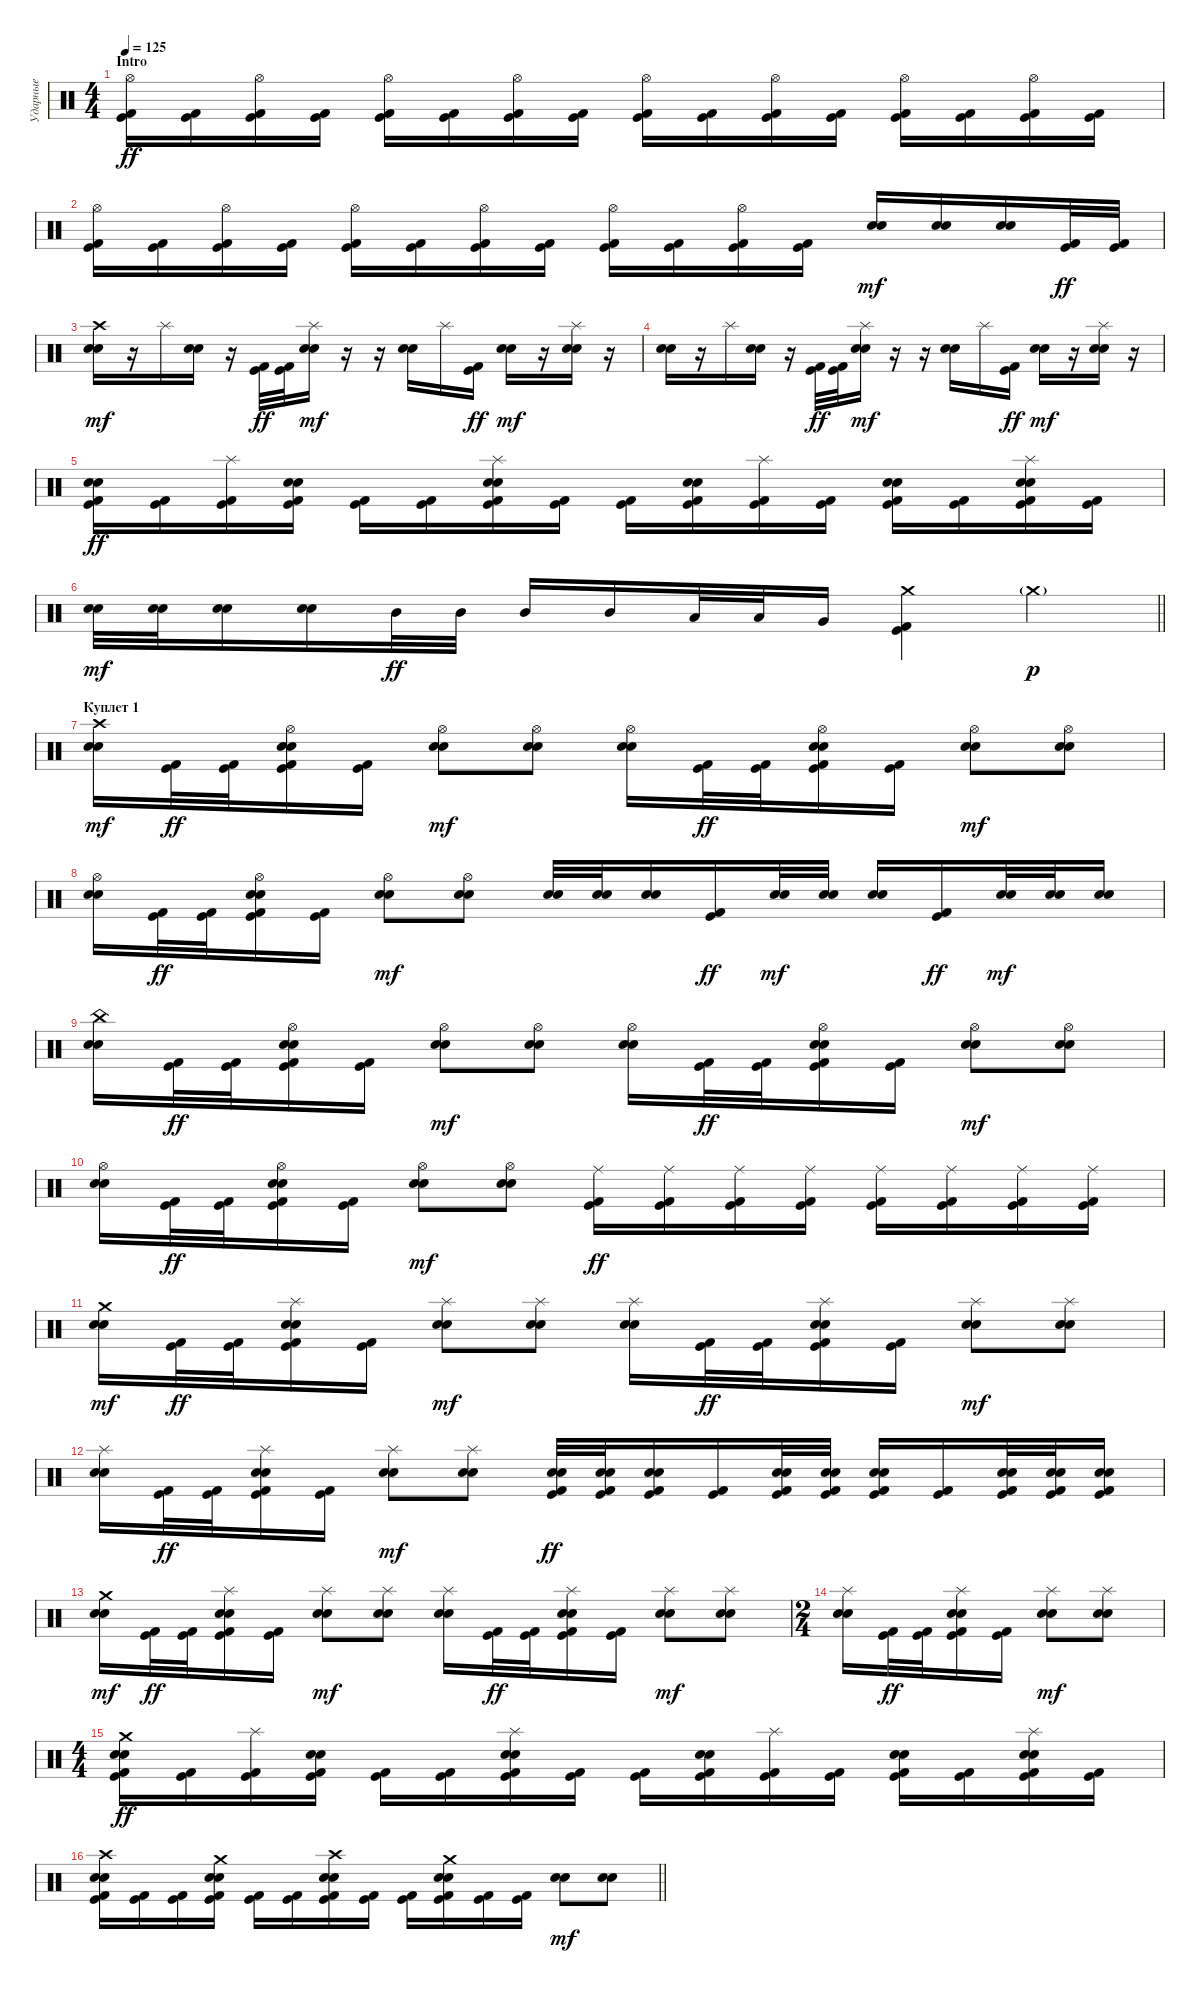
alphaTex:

\track ("Ударные" "Ударные") {instrument percussion}
\staff {score}
\articulation defaults
\ts (4 4)
\section ("" "Intro")
\tempo 125
\clef neutral
\ks c
("Hi-Hat (open)" "Kick (hit) 2" "Kick (hit)").16{dy ff} ("Kick (hit) 2" "Kick (hit)").16 ("Hi-Hat (open)" "Kick (hit) 2" "Kick (hit)").16 ("Kick (hit) 2" "Kick (hit)").16 ("Hi-Hat (open)" "Kick (hit) 2" "Kick (hit)").16 ("Kick (hit) 2" "Kick (hit)").16 ("Hi-Hat (open)" "Kick (hit) 2" "Kick (hit)").16 ("Kick (hit) 2" "Kick (hit)").16 ("Hi-Hat (open)" "Kick (hit) 2" "Kick (hit)").16 ("Kick (hit) 2" "Kick (hit)").16 ("Hi-Hat (open)" "Kick (hit) 2" "Kick (hit)").16 ("Kick (hit) 2" "Kick (hit)").16 ("Hi-Hat (open)" "Kick (hit) 2" "Kick (hit)").16 ("Kick (hit) 2" "Kick (hit)").16 ("Hi-Hat (open)" "Kick (hit) 2" "Kick (hit)").16 ("Kick (hit) 2" "Kick (hit)").16 |
("Hi-Hat (open)" "Kick (hit) 2" "Kick (hit)").16 ("Kick (hit) 2" "Kick (hit)").16 ("Hi-Hat (open)" "Kick (hit) 2" "Kick (hit)").16 ("Kick (hit) 2" "Kick (hit)").16 ("Hi-Hat (open)" "Kick (hit) 2" "Kick (hit)").16 ("Kick (hit) 2" "Kick (hit)").16 ("Hi-Hat (open)" "Kick (hit) 2" "Kick (hit)").16 ("Kick (hit) 2" "Kick (hit)").16 ("Hi-Hat (open)" "Kick (hit) 2" "Kick (hit)").16 ("Kick (hit) 2" "Kick (hit)").16 ("Hi-Hat (open)" "Kick (hit) 2" "Kick (hit)").16 ("Kick (hit) 2" "Kick (hit)").16 ("Snare (hit) 2" "Electric Snare (hit)").16{dy mf} ("Snare (hit) 2" "Electric Snare (hit)").16 ("Snare (hit) 2" "Electric Snare (hit)").16 ("Kick (hit) 2" "Kick (hit)").32{dy ff} ("Kick (hit) 2" "Kick (hit)").32 |
("Crash high (hit)" "Snare (hit) 2" "Electric Snare (hit)").16{dy mf} r.16 "Splash (hit)".16 ("Snare (hit) 2" "Electric Snare (hit)").16 r.16 ("Kick (hit) 2" "Kick (hit)").32{dy ff} ("Kick (hit) 2" "Kick (hit)").32 ("Splash (hit)" "Snare (hit) 2" "Electric Snare (hit)").16{dy mf} r.16 r.16 ("Snare (hit) 2" "Electric Snare (hit)").16 "Splash (hit)".16 ("Kick (hit) 2" "Kick (hit)").16{dy ff} ("Snare (hit) 2" "Electric Snare (hit)").16{dy mf} r.16 ("Splash (hit)" "Snare (hit) 2" "Electric Snare (hit)").16 r.16 |
("Snare (hit) 2" "Electric Snare (hit)").16 r.16 "Splash (hit)".16 ("Snare (hit) 2" "Electric Snare (hit)").16 r.16 ("Kick (hit) 2" "Kick (hit)").32{dy ff} ("Kick (hit) 2" "Kick (hit)").32 ("Splash (hit)" "Snare (hit) 2" "Electric Snare (hit)").16{dy mf} r.16 r.16 ("Snare (hit) 2" "Electric Snare (hit)").16 "Splash (hit)".16 ("Kick (hit) 2" "Kick (hit)").16{dy ff} ("Snare (hit) 2" "Electric Snare (hit)").16{dy mf} r.16 ("Splash (hit)" "Snare (hit) 2" "Electric Snare (hit)").16 r.16 |
("Snare (hit) 2" "Electric Snare (hit)" "Kick (hit) 2" "Kick (hit)").16{dy ff} ("Kick (hit) 2" "Kick (hit)").16 ("Splash (hit)" "Kick (hit) 2" "Kick (hit)").16 ("Snare (hit) 2" "Electric Snare (hit)" "Kick (hit) 2" "Kick (hit)").16 ("Kick (hit) 2" "Kick (hit)").16 ("Kick (hit) 2" "Kick (hit)").16 ("Splash (hit)" "Snare (hit) 2" "Electric Snare (hit)" "Kick (hit) 2" "Kick (hit)").16 ("Kick (hit) 2" "Kick (hit)").16 ("Kick (hit) 2" "Kick (hit)").16 ("Snare (hit) 2" "Electric Snare (hit)" "Kick (hit) 2" "Kick (hit)").16 ("Splash (hit)" "Kick (hit) 2" "Kick (hit)").16 ("Kick (hit) 2" "Kick (hit)").16 ("Snare (hit) 2" "Electric Snare (hit)" "Kick (hit) 2" "Kick (hit)").16 ("Kick (hit) 2" "Kick (hit)").16 ("Splash (hit)" "Snare (hit) 2" "Electric Snare (hit)" "Kick (hit) 2" "Kick (hit)").16 ("Kick (hit) 2" "Kick (hit)").16 |
\barLineRight lightlight
("Snare (hit) 2" "Electric Snare (hit)").32{dy mf} ("Snare (hit) 2" "Electric Snare (hit)").32 ("Snare (hit) 2" "Electric Snare (hit)").16 ("Snare (hit) 2" "Electric Snare (hit)").16 "Mid Tom (hit)".32{dy ff} "Mid Tom (hit)".32 "Mid Tom (hit)".16 "Mid Tom (hit)".16 "Low Tom (hit)".32 "Low Tom (hit)".32 "Very Low Tom (hit)".16 ("Crash medium (hit)" "Kick (hit) 2" "Kick (hit)").4{volume 0} "Crash medium (hit)"{g}.4{dy p} |
\section ("" "Куплет 1")
("Crash high (hit)" "Snare (hit) 2" "Electric Snare (hit)").16{dy mf volume 16} ("Kick (hit) 2" "Kick (hit)").32{dy ff} ("Kick (hit) 2" "Kick (hit)").32 ("Hi-Hat (open)" "Snare (hit) 2" "Electric Snare (hit)" "Kick (hit) 2" "Kick (hit)").16 ("Kick (hit) 2" "Kick (hit)").16 ("Hi-Hat (open)" "Snare (hit) 2" "Electric Snare (hit)").8{dy mf} ("Hi-Hat (open)" "Snare (hit) 2" "Electric Snare (hit)").8 ("Hi-Hat (open)" "Snare (hit) 2" "Electric Snare (hit)").16 ("Kick (hit) 2" "Kick (hit)").32{dy ff} ("Kick (hit) 2" "Kick (hit)").32 ("Hi-Hat (open)" "Snare (hit) 2" "Electric Snare (hit)" "Kick (hit) 2" "Kick (hit)").16 ("Kick (hit) 2" "Kick (hit)").16 ("Hi-Hat (open)" "Snare (hit) 2" "Electric Snare (hit)").8{dy mf} ("Hi-Hat (open)" "Snare (hit) 2" "Electric Snare (hit)").8 |
("Hi-Hat (open)" "Snare (hit) 2" "Electric Snare (hit)").16 ("Kick (hit) 2" "Kick (hit)").32{dy ff} ("Kick (hit) 2" "Kick (hit)").32 ("Hi-Hat (open)" "Snare (hit) 2" "Electric Snare (hit)" "Kick (hit) 2" "Kick (hit)").16 ("Kick (hit) 2" "Kick (hit)").16 ("Hi-Hat (open)" "Snare (hit) 2" "Electric Snare (hit)").8{dy mf} ("Hi-Hat (open)" "Snare (hit) 2" "Electric Snare (hit)").8 ("Snare (hit) 2" "Electric Snare (hit)").32 ("Snare (hit) 2" "Electric Snare (hit)").32 ("Snare (hit) 2" "Electric Snare (hit)").16 ("Kick (hit) 2" "Kick (hit)").16{dy ff} ("Snare (hit) 2" "Electric Snare (hit)").32{dy mf} ("Snare (hit) 2" "Electric Snare (hit)").32 ("Snare (hit) 2" "Electric Snare (hit)").16 ("Kick (hit) 2" "Kick (hit)").16{dy ff} ("Snare (hit) 2" "Electric Snare (hit)").32{dy mf} ("Snare (hit) 2" "Electric Snare (hit)").32 ("Snare (hit) 2" "Electric Snare (hit)").16 |
("China (hit)" "Snare (hit) 2" "Electric Snare (hit)").16 ("Kick (hit) 2" "Kick (hit)").32{dy ff} ("Kick (hit) 2" "Kick (hit)").32 ("Hi-Hat (open)" "Snare (hit) 2" "Electric Snare (hit)" "Kick (hit) 2" "Kick (hit)").16 ("Kick (hit) 2" "Kick (hit)").16 ("Hi-Hat (open)" "Snare (hit) 2" "Electric Snare (hit)").8{dy mf} ("Hi-Hat (open)" "Snare (hit) 2" "Electric Snare (hit)").8 ("Hi-Hat (open)" "Snare (hit) 2" "Electric Snare (hit)").16 ("Kick (hit) 2" "Kick (hit)").32{dy ff} ("Kick (hit) 2" "Kick (hit)").32 ("Hi-Hat (open)" "Snare (hit) 2" "Electric Snare (hit)" "Kick (hit) 2" "Kick (hit)").16 ("Kick (hit) 2" "Kick (hit)").16 ("Hi-Hat (open)" "Snare (hit) 2" "Electric Snare (hit)").8{dy mf} ("Hi-Hat (open)" "Snare (hit) 2" "Electric Snare (hit)").8 |
("Hi-Hat (open)" "Snare (hit) 2" "Electric Snare (hit)").16 ("Kick (hit) 2" "Kick (hit)").32{dy ff} ("Kick (hit) 2" "Kick (hit)").32 ("Hi-Hat (open)" "Snare (hit) 2" "Electric Snare (hit)" "Kick (hit) 2" "Kick (hit)").16 ("Kick (hit) 2" "Kick (hit)").16 ("Hi-Hat (open)" "Snare (hit) 2" "Electric Snare (hit)").8{dy mf} ("Hi-Hat (open)" "Snare (hit) 2" "Electric Snare (hit)").8 ("Ride (middle)" "Kick (hit) 2" "Kick (hit)").16{dy ff} ("Ride (middle)" "Kick (hit) 2" "Kick (hit)").16 ("Ride (middle)" "Kick (hit) 2" "Kick (hit)").16 ("Ride (middle)" "Kick (hit) 2" "Kick (hit)").16 ("Ride (middle)" "Kick (hit) 2" "Kick (hit)").16 ("Ride (middle)" "Kick (hit) 2" "Kick (hit)").16 ("Ride (middle)" "Kick (hit) 2" "Kick (hit)").16 ("Ride (middle)" "Kick (hit) 2" "Kick (hit)").16 |
("Crash medium (hit)" "Snare (hit) 2" "Electric Snare (hit)").16{dy mf} ("Kick (hit) 2" "Kick (hit)").32{dy ff} ("Kick (hit) 2" "Kick (hit)").32 ("Splash (hit)" "Snare (hit) 2" "Electric Snare (hit)" "Kick (hit) 2" "Kick (hit)").16 ("Kick (hit) 2" "Kick (hit)").16 ("Splash (hit)" "Snare (hit) 2" "Electric Snare (hit)").8{dy mf} ("Splash (hit)" "Snare (hit) 2" "Electric Snare (hit)").8 ("Splash (hit)" "Snare (hit) 2" "Electric Snare (hit)").16 ("Kick (hit) 2" "Kick (hit)").32{dy ff} ("Kick (hit) 2" "Kick (hit)").32 ("Splash (hit)" "Snare (hit) 2" "Electric Snare (hit)" "Kick (hit) 2" "Kick (hit)").16 ("Kick (hit) 2" "Kick (hit)").16 ("Splash (hit)" "Snare (hit) 2" "Electric Snare (hit)").8{dy mf} ("Splash (hit)" "Snare (hit) 2" "Electric Snare (hit)").8 |
("Splash (hit)" "Snare (hit) 2" "Electric Snare (hit)").16 ("Kick (hit) 2" "Kick (hit)").32{dy ff} ("Kick (hit) 2" "Kick (hit)").32 ("Splash (hit)" "Snare (hit) 2" "Electric Snare (hit)" "Kick (hit) 2" "Kick (hit)").16 ("Kick (hit) 2" "Kick (hit)").16 ("Splash (hit)" "Snare (hit) 2" "Electric Snare (hit)").8{dy mf} ("Splash (hit)" "Snare (hit) 2" "Electric Snare (hit)").8 ("Snare (hit) 2" "Electric Snare (hit)" "Kick (hit) 2" "Kick (hit)").32{dy ff} ("Snare (hit) 2" "Electric Snare (hit)" "Kick (hit) 2" "Kick (hit)").32 ("Snare (hit) 2" "Electric Snare (hit)" "Kick (hit) 2" "Kick (hit)").16 ("Kick (hit) 2" "Kick (hit)").16 ("Snare (hit) 2" "Electric Snare (hit)" "Kick (hit) 2" "Kick (hit)").32 ("Snare (hit) 2" "Electric Snare (hit)" "Kick (hit) 2" "Kick (hit)").32 ("Snare (hit) 2" "Electric Snare (hit)" "Kick (hit) 2" "Kick (hit)").16 ("Kick (hit) 2" "Kick (hit)").16 ("Snare (hit) 2" "Electric Snare (hit)" "Kick (hit) 2" "Kick (hit)").32 ("Snare (hit) 2" "Electric Snare (hit)" "Kick (hit) 2" "Kick (hit)").32 ("Snare (hit) 2" "Electric Snare (hit)" "Kick (hit) 2" "Kick (hit)").16 |
("Crash medium (hit)" "Snare (hit) 2" "Electric Snare (hit)").16{dy mf} ("Kick (hit) 2" "Kick (hit)").32{dy ff} ("Kick (hit) 2" "Kick (hit)").32 ("Splash (hit)" "Snare (hit) 2" "Electric Snare (hit)" "Kick (hit) 2" "Kick (hit)").16 ("Kick (hit) 2" "Kick (hit)").16 ("Splash (hit)" "Snare (hit) 2" "Electric Snare (hit)").8{dy mf} ("Splash (hit)" "Snare (hit) 2" "Electric Snare (hit)").8 ("Splash (hit)" "Snare (hit) 2" "Electric Snare (hit)").16 ("Kick (hit) 2" "Kick (hit)").32{dy ff} ("Kick (hit) 2" "Kick (hit)").32 ("Splash (hit)" "Snare (hit) 2" "Electric Snare (hit)" "Kick (hit) 2" "Kick (hit)").16 ("Kick (hit) 2" "Kick (hit)").16 ("Splash (hit)" "Snare (hit) 2" "Electric Snare (hit)").8{dy mf} ("Splash (hit)" "Snare (hit) 2" "Electric Snare (hit)").8 |
\ts (2 4)
("Splash (hit)" "Snare (hit) 2" "Electric Snare (hit)").16 ("Kick (hit) 2" "Kick (hit)").32{dy ff} ("Kick (hit) 2" "Kick (hit)").32 ("Splash (hit)" "Snare (hit) 2" "Electric Snare (hit)" "Kick (hit) 2" "Kick (hit)").16 ("Kick (hit) 2" "Kick (hit)").16 ("Splash (hit)" "Snare (hit) 2" "Electric Snare (hit)").8{dy mf} ("Splash (hit)" "Snare (hit) 2" "Electric Snare (hit)").8 |
\ts (4 4)
("Crash medium (hit)" "Snare (hit) 2" "Electric Snare (hit)" "Kick (hit) 2" "Kick (hit)").16{dy ff} ("Kick (hit) 2" "Kick (hit)").16 ("Splash (hit)" "Kick (hit) 2" "Kick (hit)").16 ("Snare (hit) 2" "Electric Snare (hit)" "Kick (hit) 2" "Kick (hit)").16 ("Kick (hit) 2" "Kick (hit)").16 ("Kick (hit) 2" "Kick (hit)").16 ("Splash (hit)" "Snare (hit) 2" "Electric Snare (hit)" "Kick (hit) 2" "Kick (hit)").16 ("Kick (hit) 2" "Kick (hit)").16 ("Kick (hit) 2" "Kick (hit)").16 ("Snare (hit) 2" "Electric Snare (hit)" "Kick (hit) 2" "Kick (hit)").16 ("Splash (hit)" "Kick (hit) 2" "Kick (hit)").16 ("Kick (hit) 2" "Kick (hit)").16 ("Snare (hit) 2" "Electric Snare (hit)" "Kick (hit) 2" "Kick (hit)").16 ("Kick (hit) 2" "Kick (hit)").16 ("Splash (hit)" "Snare (hit) 2" "Electric Snare (hit)" "Kick (hit) 2" "Kick (hit)").16 ("Kick (hit) 2" "Kick (hit)").16 |
\barLineRight lightlight
("Crash high (hit)" "Snare (hit) 2" "Electric Snare (hit)" "Kick (hit) 2" "Kick (hit)").16 ("Kick (hit) 2" "Kick (hit)").16 ("Kick (hit) 2" "Kick (hit)").16 ("Crash medium (hit)" "Snare (hit) 2" "Electric Snare (hit)" "Kick (hit) 2" "Kick (hit)").16 ("Kick (hit) 2" "Kick (hit)").16 ("Kick (hit) 2" "Kick (hit)").16 ("Crash high (hit)" "Snare (hit) 2" "Electric Snare (hit)" "Kick (hit) 2" "Kick (hit)").16 ("Kick (hit) 2" "Kick (hit)").16 ("Kick (hit) 2" "Kick (hit)").16 ("Crash medium (hit)" "Snare (hit) 2" "Electric Snare (hit)" "Kick (hit) 2" "Kick (hit)").16 ("Kick (hit) 2" "Kick (hit)").16 ("Kick (hit) 2" "Kick (hit)").16 ("Snare (hit) 2" "Electric Snare (hit)").8{dy mf} ("Snare (hit) 2" "Electric Snare (hit)").8
